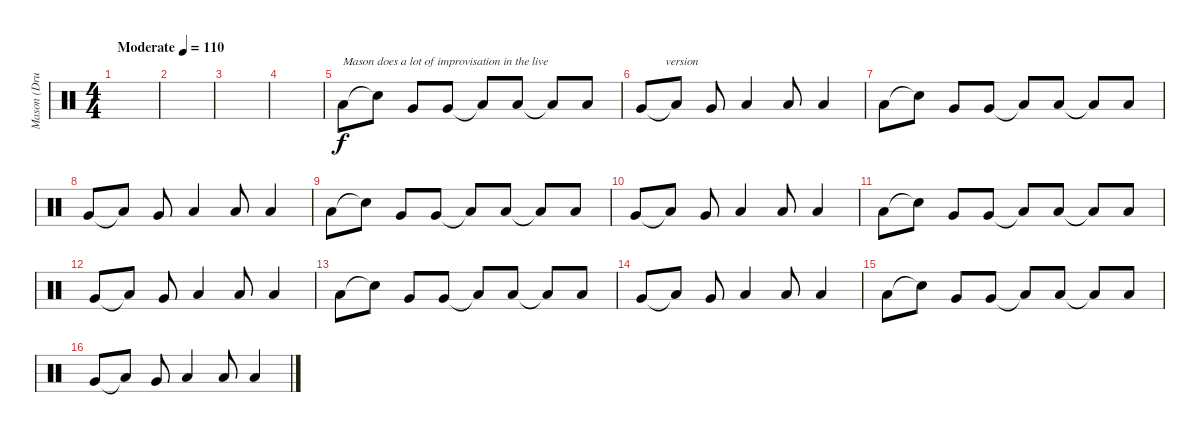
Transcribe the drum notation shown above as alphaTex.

\track ("Mason (Drums)" "Mason (Dru") {instrument percussion}
\staff {score}
\articulation defaults
\ts (4 4)
\tempo (110 "Moderate")
\clef neutral
\ks c
|
|
|
|
"Low Tom (hit)".8{txt "Mason does a lot of improvisation in the live "} "Snare (hit)"{t}.8 "Very Low Tom (hit)".8 "Very Low Tom (hit)".8 "Low Floor Tom (hit)"{t}.8 "Low Floor Tom (hit)".8 "Low Tom (hit)"{t}.8 "Low Tom (hit)".8 |
"Very Low Tom (hit)".8{txt "        version"} "Low Floor Tom (hit)"{t}.8 "Very Low Tom (hit)".8 "Low Tom (hit)".4 "Low Floor Tom (hit)".8 "Low Floor Tom (hit)".4 |
"Low Tom (hit)".8 "Snare (hit)"{t}.8 "Very Low Tom (hit)".8 "Very Low Tom (hit)".8 "Low Floor Tom (hit)"{t}.8 "Low Floor Tom (hit)".8 "Low Tom (hit)"{t}.8 "Low Tom (hit)".8 |
"Very Low Tom (hit)".8 "Low Floor Tom (hit)"{t}.8 "Very Low Tom (hit)".8 "Low Tom (hit)".4 "Low Floor Tom (hit)".8 "Low Floor Tom (hit)".4 |
"Low Tom (hit)".8 "Snare (hit)"{t}.8 "Very Low Tom (hit)".8 "Very Low Tom (hit)".8 "Low Floor Tom (hit)"{t}.8 "Low Floor Tom (hit)".8 "Low Tom (hit)"{t}.8 "Low Tom (hit)".8 |
"Very Low Tom (hit)".8 "Low Floor Tom (hit)"{t}.8 "Very Low Tom (hit)".8 "Low Tom (hit)".4 "Low Floor Tom (hit)".8 "Low Floor Tom (hit)".4 |
"Low Tom (hit)".8 "Snare (hit)"{t}.8 "Very Low Tom (hit)".8 "Very Low Tom (hit)".8 "Low Floor Tom (hit)"{t}.8 "Low Floor Tom (hit)".8 "Low Tom (hit)"{t}.8 "Low Tom (hit)".8 |
"Very Low Tom (hit)".8 "Low Floor Tom (hit)"{t}.8 "Very Low Tom (hit)".8 "Low Tom (hit)".4 "Low Floor Tom (hit)".8 "Low Floor Tom (hit)".4 |
"Low Tom (hit)".8 "Snare (hit)"{t}.8 "Very Low Tom (hit)".8 "Very Low Tom (hit)".8 "Low Floor Tom (hit)"{t}.8 "Low Floor Tom (hit)".8 "Low Tom (hit)"{t}.8 "Low Tom (hit)".8 |
"Very Low Tom (hit)".8 "Low Floor Tom (hit)"{t}.8 "Very Low Tom (hit)".8 "Low Tom (hit)".4 "Low Floor Tom (hit)".8 "Low Floor Tom (hit)".4 |
"Low Tom (hit)".8 "Snare (hit)"{t}.8 "Very Low Tom (hit)".8 "Very Low Tom (hit)".8 "Low Floor Tom (hit)"{t}.8 "Low Floor Tom (hit)".8 "Low Tom (hit)"{t}.8 "Low Tom (hit)".8 |
"Very Low Tom (hit)".8 "Low Floor Tom (hit)"{t}.8 "Very Low Tom (hit)".8 "Low Tom (hit)".4 "Low Floor Tom (hit)".8 "Low Floor Tom (hit)".4
